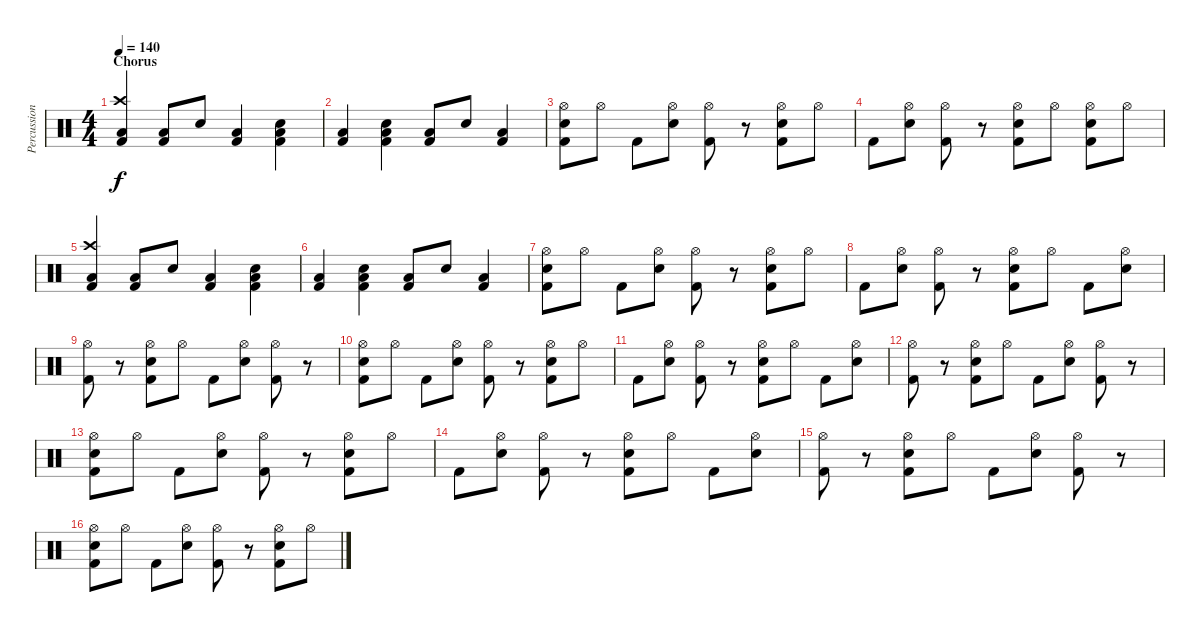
\track ("Percussion" "Percussion") {instrument percussion}
\staff {score}
\articulation defaults
\ts (4 4)
\section ("" "Chorus")
\tempo 140
\clef neutral
\ks c
("Low Floor Tom (hit)" "Crash high (hit)" "Kick (hit) 2").4{dy f} ("Low Floor Tom (hit)" "Kick (hit) 2").8 "Snare (hit) 2".8 ("Low Floor Tom (hit)" "Kick (hit) 2").4 ("Low Floor Tom (hit)" "Snare (hit) 2" "Kick (hit) 2").4 |
("Low Floor Tom (hit)" "Kick (hit) 2").4 ("Low Floor Tom (hit)" "Snare (hit) 2" "Kick (hit) 2").4 ("Low Floor Tom (hit)" "Kick (hit) 2").8 "Snare (hit) 2".8 ("Low Floor Tom (hit)" "Kick (hit) 2").4 |
("Hi-Hat (open)" "Snare (hit) 2" "Kick (hit) 2").8 "Hi-Hat (open)".8 "Kick (hit) 2".8 ("Hi-Hat (open)" "Snare (hit) 2").8 ("Hi-Hat (open)" "Kick (hit) 2").8 r.8 ("Hi-Hat (open)" "Snare (hit) 2" "Kick (hit) 2").8 "Hi-Hat (open)".8 |
"Kick (hit) 2".8 ("Hi-Hat (open)" "Snare (hit) 2").8 ("Hi-Hat (open)" "Kick (hit) 2").8 r.8 ("Hi-Hat (open)" "Snare (hit) 2" "Kick (hit) 2").8 "Hi-Hat (open)".8 ("Hi-Hat (open)" "Snare (hit) 2" "Kick (hit) 2").8 "Hi-Hat (open)".8 |
("Low Floor Tom (hit)" "Crash high (hit)" "Kick (hit) 2").4 ("Low Floor Tom (hit)" "Kick (hit) 2").8 "Snare (hit) 2".8 ("Low Floor Tom (hit)" "Kick (hit) 2").4 ("Low Floor Tom (hit)" "Snare (hit) 2" "Kick (hit) 2").4 |
("Low Floor Tom (hit)" "Kick (hit) 2").4 ("Low Floor Tom (hit)" "Snare (hit) 2" "Kick (hit) 2").4 ("Low Floor Tom (hit)" "Kick (hit) 2").8 "Snare (hit) 2".8 ("Low Floor Tom (hit)" "Kick (hit) 2").4 |
("Hi-Hat (open)" "Snare (hit) 2" "Kick (hit) 2").8 "Hi-Hat (open)".8 "Kick (hit) 2".8 ("Hi-Hat (open)" "Snare (hit) 2").8 ("Hi-Hat (open)" "Kick (hit) 2").8 r.8 ("Hi-Hat (open)" "Snare (hit) 2" "Kick (hit) 2").8 "Hi-Hat (open)".8 |
"Kick (hit) 2".8 ("Hi-Hat (open)" "Snare (hit) 2").8 ("Hi-Hat (open)" "Kick (hit) 2").8 r.8 ("Hi-Hat (open)" "Snare (hit) 2" "Kick (hit) 2").8 "Hi-Hat (open)".8 "Kick (hit) 2".8 ("Hi-Hat (open)" "Snare (hit) 2").8 |
("Hi-Hat (open)" "Kick (hit) 2").8 r.8 ("Hi-Hat (open)" "Snare (hit) 2" "Kick (hit) 2").8 "Hi-Hat (open)".8 "Kick (hit) 2".8 ("Hi-Hat (open)" "Snare (hit) 2").8 ("Hi-Hat (open)" "Kick (hit) 2").8 r.8 |
("Hi-Hat (open)" "Snare (hit) 2" "Kick (hit) 2").8 "Hi-Hat (open)".8 "Kick (hit) 2".8 ("Hi-Hat (open)" "Snare (hit) 2").8 ("Hi-Hat (open)" "Kick (hit) 2").8 r.8 ("Hi-Hat (open)" "Snare (hit) 2" "Kick (hit) 2").8 "Hi-Hat (open)".8 |
"Kick (hit) 2".8 ("Hi-Hat (open)" "Snare (hit) 2").8 ("Hi-Hat (open)" "Kick (hit) 2").8 r.8 ("Hi-Hat (open)" "Snare (hit) 2" "Kick (hit) 2").8 "Hi-Hat (open)".8 "Kick (hit) 2".8 ("Hi-Hat (open)" "Snare (hit) 2").8 |
("Hi-Hat (open)" "Kick (hit) 2").8 r.8 ("Hi-Hat (open)" "Snare (hit) 2" "Kick (hit) 2").8 "Hi-Hat (open)".8 "Kick (hit) 2".8 ("Hi-Hat (open)" "Snare (hit) 2").8 ("Hi-Hat (open)" "Kick (hit) 2").8 r.8 |
("Hi-Hat (open)" "Snare (hit) 2" "Kick (hit) 2").8 "Hi-Hat (open)".8 "Kick (hit) 2".8 ("Hi-Hat (open)" "Snare (hit) 2").8 ("Hi-Hat (open)" "Kick (hit) 2").8 r.8 ("Hi-Hat (open)" "Snare (hit) 2" "Kick (hit) 2").8 "Hi-Hat (open)".8 |
"Kick (hit) 2".8 ("Hi-Hat (open)" "Snare (hit) 2").8 ("Hi-Hat (open)" "Kick (hit) 2").8 r.8 ("Hi-Hat (open)" "Snare (hit) 2" "Kick (hit) 2").8 "Hi-Hat (open)".8 "Kick (hit) 2".8 ("Hi-Hat (open)" "Snare (hit) 2").8 |
("Hi-Hat (open)" "Kick (hit) 2").8 r.8 ("Hi-Hat (open)" "Snare (hit) 2" "Kick (hit) 2").8 "Hi-Hat (open)".8 "Kick (hit) 2".8 ("Hi-Hat (open)" "Snare (hit) 2").8 ("Hi-Hat (open)" "Kick (hit) 2").8 r.8 |
("Hi-Hat (open)" "Snare (hit) 2" "Kick (hit) 2").8 "Hi-Hat (open)".8 "Kick (hit) 2".8 ("Hi-Hat (open)" "Snare (hit) 2").8 ("Hi-Hat (open)" "Kick (hit) 2").8 r.8 ("Hi-Hat (open)" "Snare (hit) 2" "Kick (hit) 2").8 "Hi-Hat (open)".8
